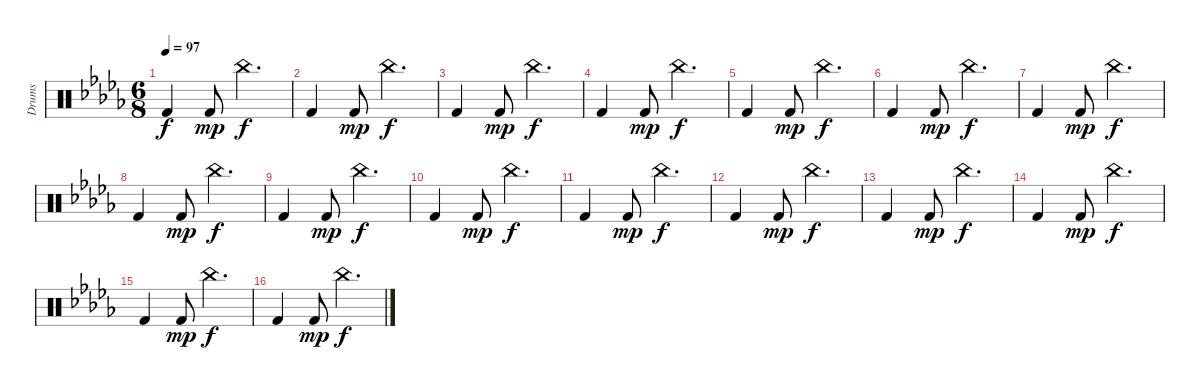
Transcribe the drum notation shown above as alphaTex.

\track ("Drums" "Drums") {instrument percussion}
\staff {score}
\articulation defaults
\ts (6 8)
\tempo 97
\clef neutral
\ks db "Kick (hit) 2".4{dy f} "Kick (hit) 2".8{dy mp} "China (hit)".4{d dy f}
|
"Kick (hit) 2".4 "Kick (hit) 2".8{dy mp} "China (hit)".4{d dy f} |
"Kick (hit) 2".4 "Kick (hit) 2".8{dy mp} "China (hit)".4{d dy f} |
"Kick (hit) 2".4 "Kick (hit) 2".8{dy mp} "China (hit)".4{d dy f} |
"Kick (hit) 2".4 "Kick (hit) 2".8{dy mp} "China (hit)".4{d dy f} |
"Kick (hit) 2".4 "Kick (hit) 2".8{dy mp} "China (hit)".4{d dy f} |
"Kick (hit) 2".4 "Kick (hit) 2".8{dy mp} "China (hit)".4{d dy f} |
"Kick (hit) 2".4 "Kick (hit) 2".8{dy mp} "China (hit)".4{d dy f} |
"Kick (hit) 2".4 "Kick (hit) 2".8{dy mp} "China (hit)".4{d dy f} |
"Kick (hit) 2".4 "Kick (hit) 2".8{dy mp} "China (hit)".4{d dy f} |
"Kick (hit) 2".4 "Kick (hit) 2".8{dy mp} "China (hit)".4{d dy f} |
"Kick (hit) 2".4 "Kick (hit) 2".8{dy mp} "China (hit)".4{d dy f} |
"Kick (hit) 2".4 "Kick (hit) 2".8{dy mp} "China (hit)".4{d dy f} |
"Kick (hit) 2".4 "Kick (hit) 2".8{dy mp} "China (hit)".4{d dy f} |
"Kick (hit) 2".4 "Kick (hit) 2".8{dy mp} "China (hit)".4{d dy f} |
"Kick (hit) 2".4 "Kick (hit) 2".8{dy mp} "China (hit)".4{d dy f}
